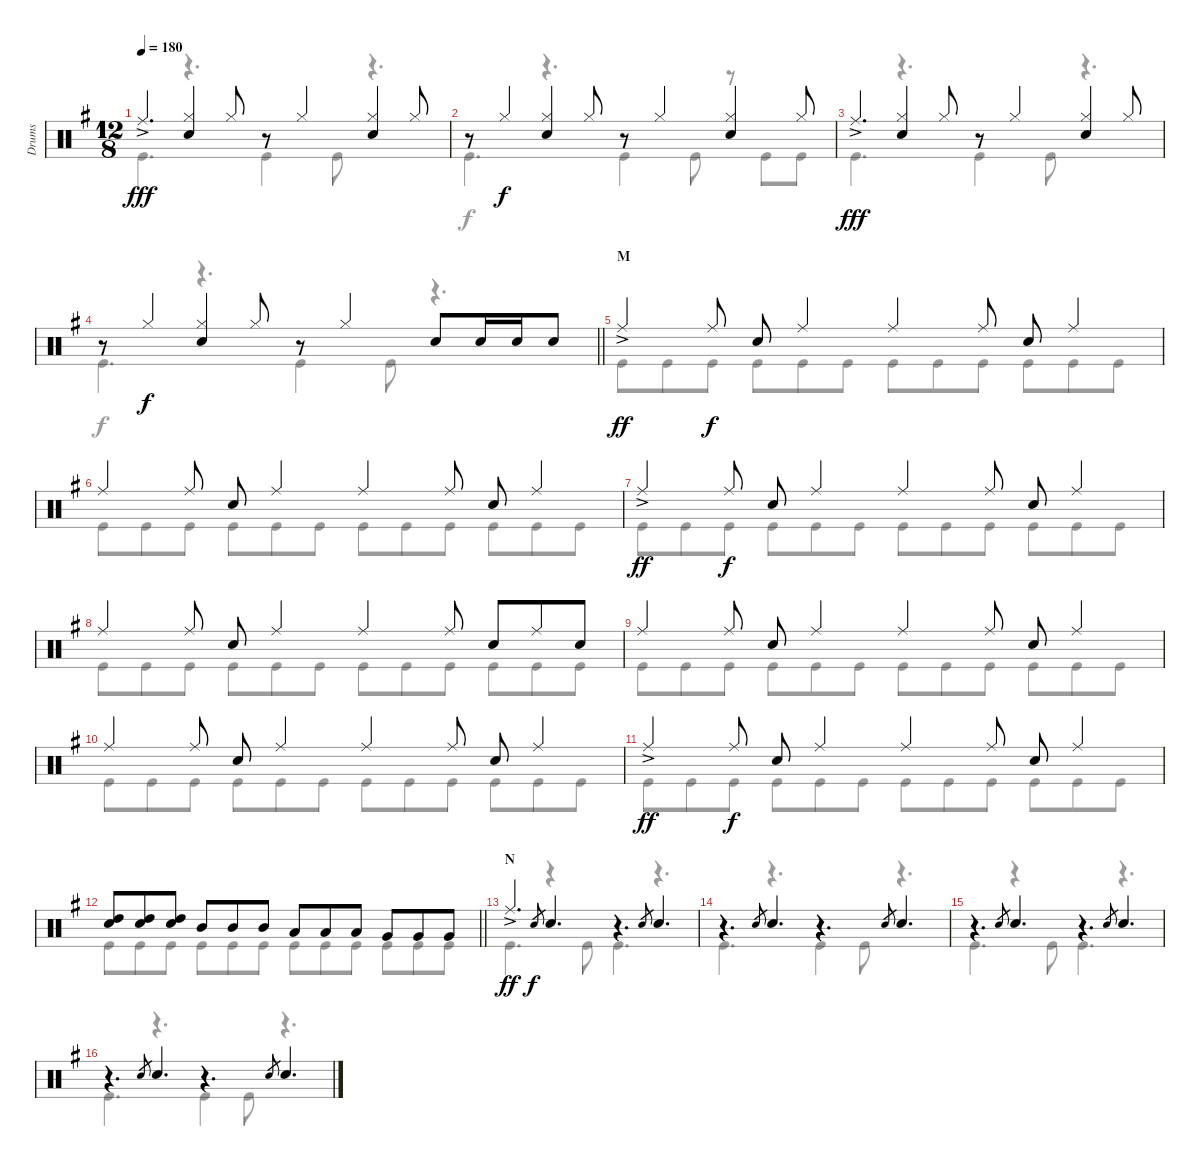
\track ("Drums" "Drums") {instrument percussion}
\staff {score}
\articulation defaults
\voice
\ts (12 8)
\tempo 180
\clef neutral
\ks g "Ride (middle)"{ac}.4{d dy fff}
("Hi-Hat (closed)" "Snare (hit) 2").4 "Hi-Hat (closed)".8 r.8 "Hi-Hat (closed)".4 ("Hi-Hat (closed)" "Snare (hit) 2").4 "Hi-Hat (closed)".8 |
r.8 "Hi-Hat (closed)".4{dy f} ("Hi-Hat (closed)" "Snare (hit) 2").4 "Hi-Hat (closed)".8 r.8 "Hi-Hat (closed)".4 ("Hi-Hat (closed)" "Snare (hit) 2").4 "Hi-Hat (closed)".8 |
"Ride (middle)"{ac}.4{d dy fff} ("Hi-Hat (closed)" "Snare (hit) 2").4 "Hi-Hat (closed)".8 r.8 "Hi-Hat (closed)".4 ("Hi-Hat (closed)" "Snare (hit) 2").4 "Hi-Hat (closed)".8 |
\barLineRight lightlight
r.8 "Hi-Hat (closed)".4{dy f} ("Hi-Hat (closed)" "Snare (hit) 2").4 "Hi-Hat (closed)".8 r.8 "Hi-Hat (closed)".4 "Snare (hit) 2".8 "Snare (hit) 2".16 "Snare (hit) 2".16 "Snare (hit) 2".8 |
\section ("" "M")
"Ride (middle)"{ac}.4{dy ff} "Ride (middle)".8{dy f} "Snare (hit) 2".8 "Ride (middle)".4 "Ride (middle)".4 "Ride (middle)".8 "Snare (hit) 2".8 "Ride (middle)".4 |
"Ride (middle)".4 "Ride (middle)".8 "Snare (hit) 2".8 "Ride (middle)".4 "Ride (middle)".4 "Ride (middle)".8 "Snare (hit) 2".8 "Ride (middle)".4 |
"Ride (middle)"{ac}.4{dy ff} "Ride (middle)".8{dy f} "Snare (hit) 2".8 "Ride (middle)".4 "Ride (middle)".4 "Ride (middle)".8 "Snare (hit) 2".8 "Ride (middle)".4 |
"Ride (middle)".4 "Ride (middle)".8 "Snare (hit) 2".8 "Ride (middle)".4 "Ride (middle)".4 "Ride (middle)".8 "Snare (hit) 2".8 "Ride (middle)".8 "Snare (hit) 2".8 |
"Ride (middle)".4 "Ride (middle)".8 "Snare (hit) 2".8 "Ride (middle)".4 "Ride (middle)".4 "Ride (middle)".8 "Snare (hit) 2".8 "Ride (middle)".4 |
"Ride (middle)".4 "Ride (middle)".8 "Snare (hit) 2".8 "Ride (middle)".4 "Ride (middle)".4 "Ride (middle)".8 "Snare (hit) 2".8 "Ride (middle)".4 |
"Ride (middle)"{ac}.4{dy ff} "Ride (middle)".8{dy f} "Snare (hit) 2".8 "Ride (middle)".4 "Ride (middle)".4 "Ride (middle)".8 "Snare (hit) 2".8 "Ride (middle)".4 |
\barLineRight lightlight
("High Tom (hit)" "Snare (hit) 2").8 ("High Tom (hit)" "Snare (hit) 2").8 ("High Tom (hit)" "Snare (hit) 2").8 "Mid Tom (hit)".8 "Mid Tom (hit)".8 "Mid Tom (hit)".8 "Low Tom (hit)".8 "Low Tom (hit)".8 "Low Tom (hit)".8 "Very Low Tom (hit)".8 "Very Low Tom (hit)".8 "Very Low Tom (hit)".8 |
\section ("" "N")
"Ride (middle)"{ac}.4{d dy ff} "Snare (hit) 2".8{gr dy f} "Snare (hit) 2".4{d} r.4{d} "Snare (hit) 2".8{gr} "Snare (hit) 2".4{d} |
r.4{d} "Snare (hit) 2".8{gr} "Snare (hit) 2".4{d} r.4{d} "Snare (hit) 2".8{gr} "Snare (hit) 2".4{d} |
r.4{d} "Snare (hit) 2".8{gr} "Snare (hit) 2".4{d} r.4{d} "Snare (hit) 2".8{gr} "Snare (hit) 2".4{d} |
r.4{d} "Snare (hit) 2".8{gr} "Snare (hit) 2".4{d} r.4{d} "Snare (hit) 2".8{gr} "Snare (hit) 2".4{d}
\voice
\clef neutral
\ottava regular
\simile none
\ks g "Kick (hit)".4{d dy fff}
r.4{d} "Kick (hit)".4 "Kick (hit)".8 r.4{d} |
"Kick (hit)".4{d dy f} r.4{d} "Kick (hit)".4 "Kick (hit)".8 r.8 "Kick (hit)".8 "Kick (hit)".8 |
"Kick (hit)".4{d dy fff} r.4{d} "Kick (hit)".4 "Kick (hit)".8 r.4{d} |
\barLineRight lightlight "Kick (hit)".4{d dy f}
r.4{d} "Kick (hit)".4 "Kick (hit)".8 r.4{d} |
"Kick (hit)".8 "Kick (hit)".8 "Kick (hit)".8 "Kick (hit)".8 "Kick (hit)".8 "Kick (hit)".8 "Kick (hit)".8 "Kick (hit)".8 "Kick (hit)".8 "Kick (hit)".8 "Kick (hit)".8 "Kick (hit)".8 |
"Kick (hit)".8 "Kick (hit)".8 "Kick (hit)".8 "Kick (hit)".8 "Kick (hit)".8 "Kick (hit)".8 "Kick (hit)".8 "Kick (hit)".8 "Kick (hit)".8 "Kick (hit)".8 "Kick (hit)".8 "Kick (hit)".8 |
"Kick (hit)".8 "Kick (hit)".8 "Kick (hit)".8 "Kick (hit)".8 "Kick (hit)".8 "Kick (hit)".8 "Kick (hit)".8 "Kick (hit)".8 "Kick (hit)".8 "Kick (hit)".8 "Kick (hit)".8 "Kick (hit)".8 |
"Kick (hit)".8 "Kick (hit)".8 "Kick (hit)".8 "Kick (hit)".8 "Kick (hit)".8 "Kick (hit)".8 "Kick (hit)".8 "Kick (hit)".8 "Kick (hit)".8 "Kick (hit)".8 "Kick (hit)".8 "Kick (hit)".8 |
"Kick (hit)".8 "Kick (hit)".8 "Kick (hit)".8 "Kick (hit)".8 "Kick (hit)".8 "Kick (hit)".8 "Kick (hit)".8 "Kick (hit)".8 "Kick (hit)".8 "Kick (hit)".8 "Kick (hit)".8 "Kick (hit)".8 |
"Kick (hit)".8 "Kick (hit)".8 "Kick (hit)".8 "Kick (hit)".8 "Kick (hit)".8 "Kick (hit)".8 "Kick (hit)".8 "Kick (hit)".8 "Kick (hit)".8 "Kick (hit)".8 "Kick (hit)".8 "Kick (hit)".8 |
"Kick (hit)".8 "Kick (hit)".8 "Kick (hit)".8 "Kick (hit)".8 "Kick (hit)".8 "Kick (hit)".8 "Kick (hit)".8 "Kick (hit)".8 "Kick (hit)".8 "Kick (hit)".8 "Kick (hit)".8 "Kick (hit)".8 |
\barLineRight lightlight "Kick (hit)".8 "Kick (hit)".8 "Kick (hit)".8 "Kick (hit)".8 "Kick (hit)".8 "Kick (hit)".8 "Kick (hit)".8 "Kick (hit)".8 "Kick (hit)".8 "Kick (hit)".8 "Kick (hit)".8 "Kick (hit)".8
|
"Kick (hit)".4{d} r.4 "Kick (hit)".8 "Kick (hit)".4{d} r.4{d} |
"Kick (hit)".4{d} r.4{d} "Kick (hit)".4 "Kick (hit)".8 r.4{d} |
"Kick (hit)".4{d} r.4 "Kick (hit)".8 "Kick (hit)".4{d} r.4{d} |
"Kick (hit)".4{d} r.4{d} "Kick (hit)".4 "Kick (hit)".8 r.4{d}
